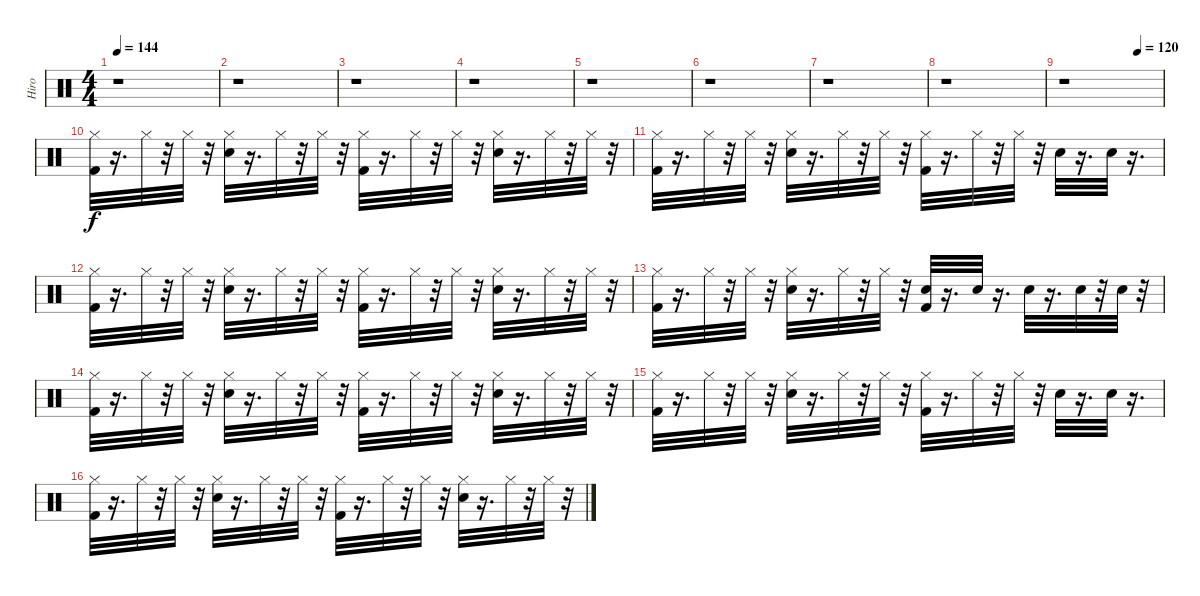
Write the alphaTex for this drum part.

\track ("Hiro" "Hiro") {instrument percussion}
\staff {score}
\articulation defaults
\ts (4 4)
\tempo 144
\clef neutral
\ks c
r.1{dy f} |
r.1 |
r.1 |
r.1 |
r.1 |
r.1 |
r.1 |
r.1 |
\tempo (120 0.75)
r.1 |
("Kick (hit) 2" "Hi-Hat (closed)").32 r.16{d} "Hi-Hat (closed)".32 r.32 "Hi-Hat (closed)".32 r.32 ("Hi-Hat (closed)" "Snare (hit) 2").32 r.16{d} "Hi-Hat (closed)".32 r.32 "Hi-Hat (closed)".32 r.32 ("Kick (hit) 2" "Hi-Hat (closed)").32 r.16{d} "Hi-Hat (closed)".32 r.32 "Hi-Hat (closed)".32 r.32 ("Hi-Hat (closed)" "Snare (hit) 2").32 r.16{d} "Hi-Hat (closed)".32 r.32 "Hi-Hat (closed)".32 r.32 |
("Kick (hit) 2" "Hi-Hat (closed)").32 r.16{d} "Hi-Hat (closed)".32 r.32 "Hi-Hat (closed)".32 r.32 ("Hi-Hat (closed)" "Snare (hit) 2").32 r.16{d} "Hi-Hat (closed)".32 r.32 "Hi-Hat (closed)".32 r.32 ("Kick (hit) 2" "Hi-Hat (closed)").32 r.16{d} "Hi-Hat (closed)".32 r.32 "Hi-Hat (closed)".32 r.32 "Snare (hit) 2".32 r.16{d} "Snare (hit) 2".32 r.16{d} |
("Kick (hit) 2" "Hi-Hat (closed)").32 r.16{d} "Hi-Hat (closed)".32 r.32 "Hi-Hat (closed)".32 r.32 ("Hi-Hat (closed)" "Snare (hit) 2").32 r.16{d} "Hi-Hat (closed)".32 r.32 "Hi-Hat (closed)".32 r.32 ("Kick (hit) 2" "Hi-Hat (closed)").32 r.16{d} "Hi-Hat (closed)".32 r.32 "Hi-Hat (closed)".32 r.32 ("Hi-Hat (closed)" "Snare (hit) 2").32 r.16{d} "Hi-Hat (closed)".32 r.32 "Hi-Hat (closed)".32 r.32 |
("Kick (hit) 2" "Hi-Hat (closed)").32 r.16{d} "Hi-Hat (closed)".32 r.32 "Hi-Hat (closed)".32 r.32 ("Hi-Hat (closed)" "Snare (hit) 2").32 r.16{d} "Hi-Hat (closed)".32 r.32 "Hi-Hat (closed)".32 r.32 ("Snare (hit) 2" "Kick (hit) 2").32 r.16{d} "Snare (hit) 2".32 r.16{d} "Snare (hit) 2".32 r.16{d} "Snare (hit) 2".32 r.32 "Snare (hit) 2".32 r.32 |
("Kick (hit) 2" "Hi-Hat (closed)").32 r.16{d} "Hi-Hat (closed)".32 r.32 "Hi-Hat (closed)".32 r.32 ("Hi-Hat (closed)" "Snare (hit) 2").32 r.16{d} "Hi-Hat (closed)".32 r.32 "Hi-Hat (closed)".32 r.32 ("Kick (hit) 2" "Hi-Hat (closed)").32 r.16{d} "Hi-Hat (closed)".32 r.32 "Hi-Hat (closed)".32 r.32 ("Hi-Hat (closed)" "Snare (hit) 2").32 r.16{d} "Hi-Hat (closed)".32 r.32 "Hi-Hat (closed)".32 r.32 |
("Kick (hit) 2" "Hi-Hat (closed)").32 r.16{d} "Hi-Hat (closed)".32 r.32 "Hi-Hat (closed)".32 r.32 ("Hi-Hat (closed)" "Snare (hit) 2").32 r.16{d} "Hi-Hat (closed)".32 r.32 "Hi-Hat (closed)".32 r.32 ("Kick (hit) 2" "Hi-Hat (closed)").32 r.16{d} "Hi-Hat (closed)".32 r.32 "Hi-Hat (closed)".32 r.32 "Snare (hit) 2".32 r.16{d} "Snare (hit) 2".32 r.16{d} |
("Kick (hit) 2" "Hi-Hat (closed)").32 r.16{d} "Hi-Hat (closed)".32 r.32 "Hi-Hat (closed)".32 r.32 ("Hi-Hat (closed)" "Snare (hit) 2").32 r.16{d} "Hi-Hat (closed)".32 r.32 "Hi-Hat (closed)".32 r.32 ("Kick (hit) 2" "Hi-Hat (closed)").32 r.16{d} "Hi-Hat (closed)".32 r.32 "Hi-Hat (closed)".32 r.32 ("Hi-Hat (closed)" "Snare (hit) 2").32 r.16{d} "Hi-Hat (closed)".32 r.32 "Hi-Hat (closed)".32 r.32
